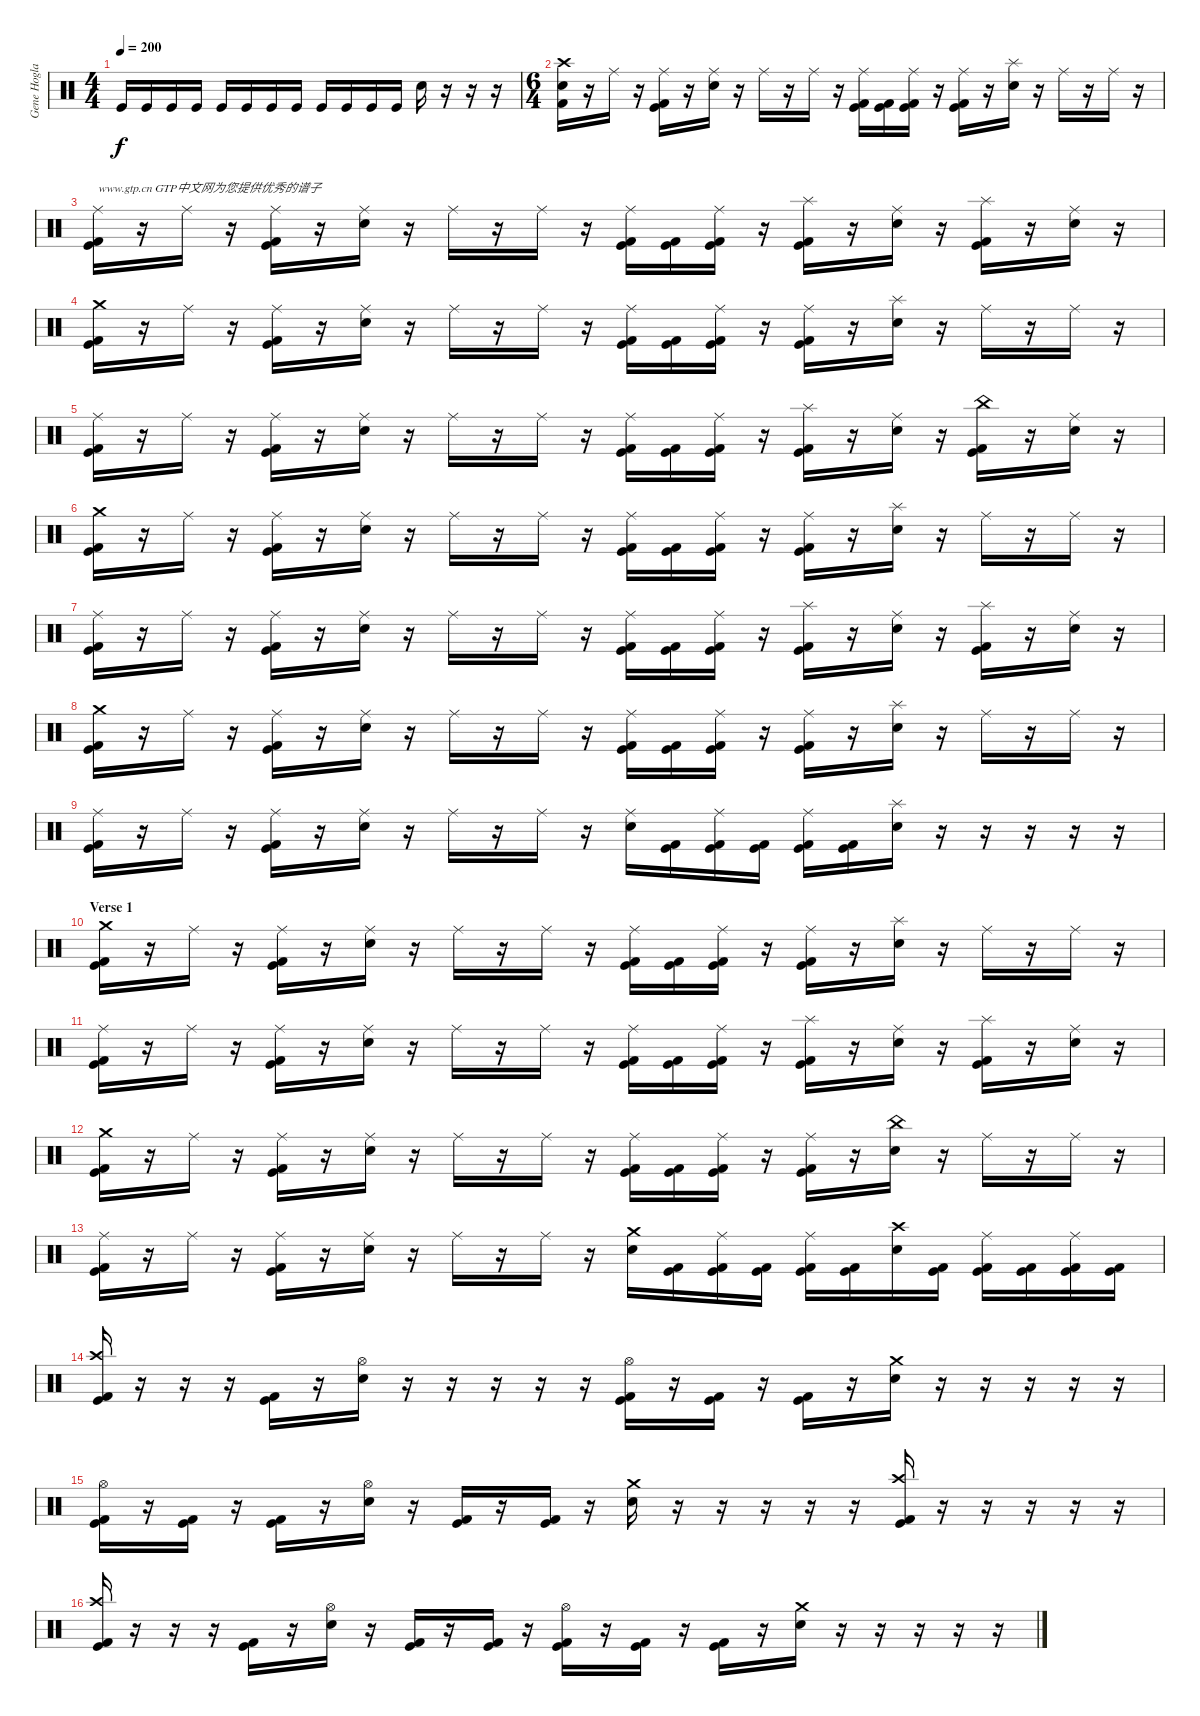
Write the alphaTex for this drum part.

\track ("Gene Hoglan" "Gene Hogla") {instrument percussion}
\staff {score}
\articulation defaults
\ts (4 4)
\tempo 200
\clef neutral
\ks c "Kick (hit)".16{dy f} "Kick (hit)".16 "Kick (hit)".16 "Kick (hit)".16 "Kick (hit)".16 "Kick (hit)".16 "Kick (hit)".16 "Kick (hit)".16 "Kick (hit)".16 "Kick (hit)".16 "Kick (hit)".16 "Kick (hit)".16 "Electric Snare (hit)".16
r.16 r.16 r.16 |
\ts (6 4)
("Crash high (hit)" "Kick (hit) 2" "Snare (hit)").16 r.16 "Ride (middle)".16 r.16 ("Ride (middle)" "Kick (hit) 2" "Kick (hit)").16 r.16 ("Ride (middle)" "Electric Snare (hit)").16 r.16 "Ride (middle)".16 r.16 "Ride (middle)".16 r.16 ("Ride (middle)" "Kick (hit) 2" "Kick (hit)").16 ("Kick (hit) 2" "Kick (hit)").16 ("Ride (middle)" "Kick (hit) 2" "Kick (hit)").16 r.16 ("Ride (middle)" "Kick (hit) 2" "Kick (hit)").16 r.16 ("Splash (hit)" "Electric Snare (hit)").16 r.16 "Ride (middle)".16 r.16 "Ride (middle)".16 r.16 |
("Ride (middle)" "Kick (hit) 2" "Kick (hit)").16{txt "www.gtp.cn GTP中文网为您提供优秀的谱子"} r.16 "Ride (middle)".16 r.16 ("Ride (middle)" "Kick (hit) 2" "Kick (hit)").16 r.16 ("Ride (middle)" "Electric Snare (hit)").16 r.16 "Ride (middle)".16 r.16 "Ride (middle)".16 r.16 ("Ride (middle)" "Kick (hit) 2" "Kick (hit)").16 ("Kick (hit) 2" "Kick (hit)").16 ("Ride (middle)" "Kick (hit) 2" "Kick (hit)").16 r.16 ("Splash (hit)" "Kick (hit) 2" "Kick (hit)").16 r.16 ("Ride (middle)" "Electric Snare (hit)").16 r.16 ("Splash (hit)" "Kick (hit) 2" "Kick (hit)").16 r.16 ("Ride (middle)" "Electric Snare (hit)").16 r.16 |
("Crash medium (hit)" "Kick (hit) 2" "Kick (hit)").16 r.16 "Ride (middle)".16 r.16 ("Ride (middle)" "Kick (hit) 2" "Kick (hit)").16 r.16 ("Ride (middle)" "Electric Snare (hit)").16 r.16 "Ride (middle)".16 r.16 "Ride (middle)".16 r.16 ("Ride (middle)" "Kick (hit) 2" "Kick (hit)").16 ("Kick (hit) 2" "Kick (hit)").16 ("Ride (middle)" "Kick (hit) 2" "Kick (hit)").16 r.16 ("Ride (middle)" "Kick (hit) 2" "Kick (hit)").16 r.16 ("Splash (hit)" "Electric Snare (hit)").16 r.16 "Ride (middle)".16 r.16 "Ride (middle)".16 r.16 |
("Ride (middle)" "Kick (hit) 2" "Kick (hit)").16 r.16 "Ride (middle)".16 r.16 ("Ride (middle)" "Kick (hit) 2" "Kick (hit)").16 r.16 ("Ride (middle)" "Electric Snare (hit)").16 r.16 "Ride (middle)".16 r.16 "Ride (middle)".16 r.16 ("Ride (middle)" "Kick (hit) 2" "Kick (hit)").16 ("Kick (hit) 2" "Kick (hit)").16 ("Ride (middle)" "Kick (hit) 2" "Kick (hit)").16 r.16 ("Splash (hit)" "Kick (hit) 2" "Kick (hit)").16 r.16 ("Ride (middle)" "Electric Snare (hit)").16 r.16 ("China (hit)" "Kick (hit) 2" "Kick (hit)").16 r.16 ("Ride (middle)" "Electric Snare (hit)").16 r.16 |
("Crash medium (hit)" "Kick (hit) 2" "Kick (hit)").16 r.16 "Ride (middle)".16 r.16 ("Ride (middle)" "Kick (hit) 2" "Kick (hit)").16 r.16 ("Ride (middle)" "Electric Snare (hit)").16 r.16 "Ride (middle)".16 r.16 "Ride (middle)".16 r.16 ("Ride (middle)" "Kick (hit) 2" "Kick (hit)").16 ("Kick (hit) 2" "Kick (hit)").16 ("Ride (middle)" "Kick (hit) 2" "Kick (hit)").16 r.16 ("Ride (middle)" "Kick (hit) 2" "Kick (hit)").16 r.16 ("Splash (hit)" "Electric Snare (hit)").16 r.16 "Ride (middle)".16 r.16 "Ride (middle)".16 r.16 |
("Ride (middle)" "Kick (hit) 2" "Kick (hit)").16 r.16 "Ride (middle)".16 r.16 ("Ride (middle)" "Kick (hit) 2" "Kick (hit)").16 r.16 ("Ride (middle)" "Electric Snare (hit)").16 r.16 "Ride (middle)".16 r.16 "Ride (middle)".16 r.16 ("Ride (middle)" "Kick (hit) 2" "Kick (hit)").16 ("Kick (hit) 2" "Kick (hit)").16 ("Ride (middle)" "Kick (hit) 2" "Kick (hit)").16 r.16 ("Splash (hit)" "Kick (hit) 2" "Kick (hit)").16 r.16 ("Ride (middle)" "Electric Snare (hit)").16 r.16 ("Splash (hit)" "Kick (hit) 2" "Kick (hit)").16 r.16 ("Ride (middle)" "Electric Snare (hit)").16 r.16 |
("Crash medium (hit)" "Kick (hit) 2" "Kick (hit)").16 r.16 "Ride (middle)".16 r.16 ("Ride (middle)" "Kick (hit) 2" "Kick (hit)").16 r.16 ("Ride (middle)" "Electric Snare (hit)").16 r.16 "Ride (middle)".16 r.16 "Ride (middle)".16 r.16 ("Ride (middle)" "Kick (hit) 2" "Kick (hit)").16 ("Kick (hit) 2" "Kick (hit)").16 ("Ride (middle)" "Kick (hit) 2" "Kick (hit)").16 r.16 ("Ride (middle)" "Kick (hit) 2" "Kick (hit)").16 r.16 ("Splash (hit)" "Electric Snare (hit)").16 r.16 "Ride (middle)".16 r.16 "Ride (middle)".16 r.16 |
("Ride (middle)" "Kick (hit) 2" "Kick (hit)").16 r.16 "Ride (middle)".16 r.16 ("Ride (middle)" "Kick (hit) 2" "Kick (hit)").16 r.16 ("Ride (middle)" "Electric Snare (hit)").16 r.16 "Ride (middle)".16 r.16 "Ride (middle)".16 r.16 ("Ride (middle)" "Electric Snare (hit)").16 ("Kick (hit) 2" "Kick (hit)").16 ("Ride (middle)" "Kick (hit) 2" "Kick (hit)").16 ("Kick (hit) 2" "Kick (hit)").16 ("Ride (middle)" "Kick (hit) 2" "Kick (hit)").16 ("Kick (hit) 2" "Kick (hit)").16 ("Splash (hit)" "Electric Snare (hit)").16 r.16 r.16 r.16 r.16 r.16 |
\section ("" "Verse 1")
("Crash medium (hit)" "Kick (hit) 2" "Kick (hit)").16 r.16 "Ride (middle)".16 r.16 ("Ride (middle)" "Kick (hit) 2" "Kick (hit)").16 r.16 ("Ride (middle)" "Electric Snare (hit)").16 r.16 "Ride (middle)".16 r.16 "Ride (middle)".16 r.16 ("Ride (middle)" "Kick (hit) 2" "Kick (hit)").16 ("Kick (hit) 2" "Kick (hit)").16 ("Ride (middle)" "Kick (hit) 2" "Kick (hit)").16 r.16 ("Ride (middle)" "Kick (hit) 2" "Kick (hit)").16 r.16 ("Splash (hit)" "Electric Snare (hit)").16 r.16 "Ride (middle)".16 r.16 "Ride (middle)".16 r.16 |
("Ride (middle)" "Kick (hit) 2" "Kick (hit)").16 r.16 "Ride (middle)".16 r.16 ("Ride (middle)" "Kick (hit) 2" "Kick (hit)").16 r.16 ("Ride (middle)" "Electric Snare (hit)").16 r.16 "Ride (middle)".16 r.16 "Ride (middle)".16 r.16 ("Ride (middle)" "Kick (hit) 2" "Kick (hit)").16 ("Kick (hit) 2" "Kick (hit)").16 ("Ride (middle)" "Kick (hit) 2" "Kick (hit)").16 r.16 ("Splash (hit)" "Kick (hit) 2" "Kick (hit)").16 r.16 ("Ride (middle)" "Electric Snare (hit)").16 r.16 ("Splash (hit)" "Kick (hit) 2" "Kick (hit)").16 r.16 ("Ride (middle)" "Electric Snare (hit)").16 r.16 |
("Crash medium (hit)" "Kick (hit) 2" "Kick (hit)").16 r.16 "Ride (middle)".16 r.16 ("Ride (middle)" "Kick (hit) 2" "Kick (hit)").16 r.16 ("Ride (middle)" "Electric Snare (hit)").16 r.16 "Ride (middle)".16 r.16 "Ride (middle)".16 r.16 ("Ride (middle)" "Kick (hit) 2" "Kick (hit)").16 ("Kick (hit) 2" "Kick (hit)").16 ("Ride (middle)" "Kick (hit) 2" "Kick (hit)").16 r.16 ("Ride (middle)" "Kick (hit) 2" "Kick (hit)").16 r.16 ("China (hit)" "Electric Snare (hit)").16 r.16 "Ride (middle)".16 r.16 "Ride (middle)".16 r.16 |
("Ride (middle)" "Kick (hit) 2" "Kick (hit)").16 r.16 "Ride (middle)".16 r.16 ("Ride (middle)" "Kick (hit) 2" "Kick (hit)").16 r.16 ("Ride (middle)" "Electric Snare (hit)").16 r.16 "Ride (middle)".16 r.16 "Ride (middle)".16 r.16 ("Crash medium (hit)" "Electric Snare (hit)").16 ("Kick (hit) 2" "Kick (hit)").16 ("Ride (middle)" "Kick (hit) 2" "Kick (hit)").16 ("Kick (hit) 2" "Kick (hit)").16 ("Ride (middle)" "Kick (hit) 2" "Kick (hit)").16 ("Kick (hit) 2" "Kick (hit)").16 ("Crash high (hit)" "Electric Snare (hit)").16 ("Kick (hit) 2" "Kick (hit)").16 ("Ride (middle)" "Kick (hit) 2" "Kick (hit)").16 ("Kick (hit) 2" "Kick (hit)").16 ("Ride (middle)" "Kick (hit) 2" "Kick (hit)").16 ("Kick (hit) 2" "Kick (hit)").16 |
("Crash high (hit)" "Kick (hit) 2" "Kick (hit)").16 r.16 r.16 r.16 ("Kick (hit) 2" "Kick (hit)").16 r.16 ("Hi-Hat (open)" "Electric Snare (hit)").16 r.16 r.16 r.16 r.16 r.16 ("Hi-Hat (open)" "Kick (hit) 2" "Kick (hit)").16 r.16 ("Kick (hit) 2" "Kick (hit)").16 r.16 ("Kick (hit) 2" "Kick (hit)").16 r.16 ("Crash medium (hit)" "Electric Snare (hit)").16 r.16 r.16 r.16 r.16 r.16 |
("Hi-Hat (open)" "Kick (hit) 2" "Kick (hit)").16 r.16 ("Kick (hit) 2" "Kick (hit)").16 r.16 ("Kick (hit)" "Kick (hit) 2").16 r.16 ("Hi-Hat (open)" "Electric Snare (hit)").16 r.16 ("Kick (hit)" "Kick (hit) 2").16 r.16 ("Kick (hit) 2" "Kick (hit)").16 r.16 ("Crash medium (hit)" "Electric Snare (hit)").16 r.16 r.16 r.16 r.16 r.16 ("Crash high (hit)" "Kick (hit) 2" "Kick (hit)").16 r.16 r.16 r.16 r.16 r.16 |
("Crash high (hit)" "Kick (hit) 2" "Kick (hit)").16 r.16 r.16 r.16 ("Kick (hit) 2" "Kick (hit)").16 r.16 ("Hi-Hat (open)" "Electric Snare (hit)").16 r.16 ("Kick (hit) 2" "Kick (hit)").16 r.16 ("Kick (hit) 2" "Kick (hit)").16 r.16 ("Hi-Hat (open)" "Kick (hit) 2" "Kick (hit)").16 r.16 ("Kick (hit) 2" "Kick (hit)").16 r.16 ("Kick (hit) 2" "Kick (hit)").16 r.16 ("Crash medium (hit)" "Electric Snare (hit)").16 r.16 r.16 r.16 r.16 r.16
